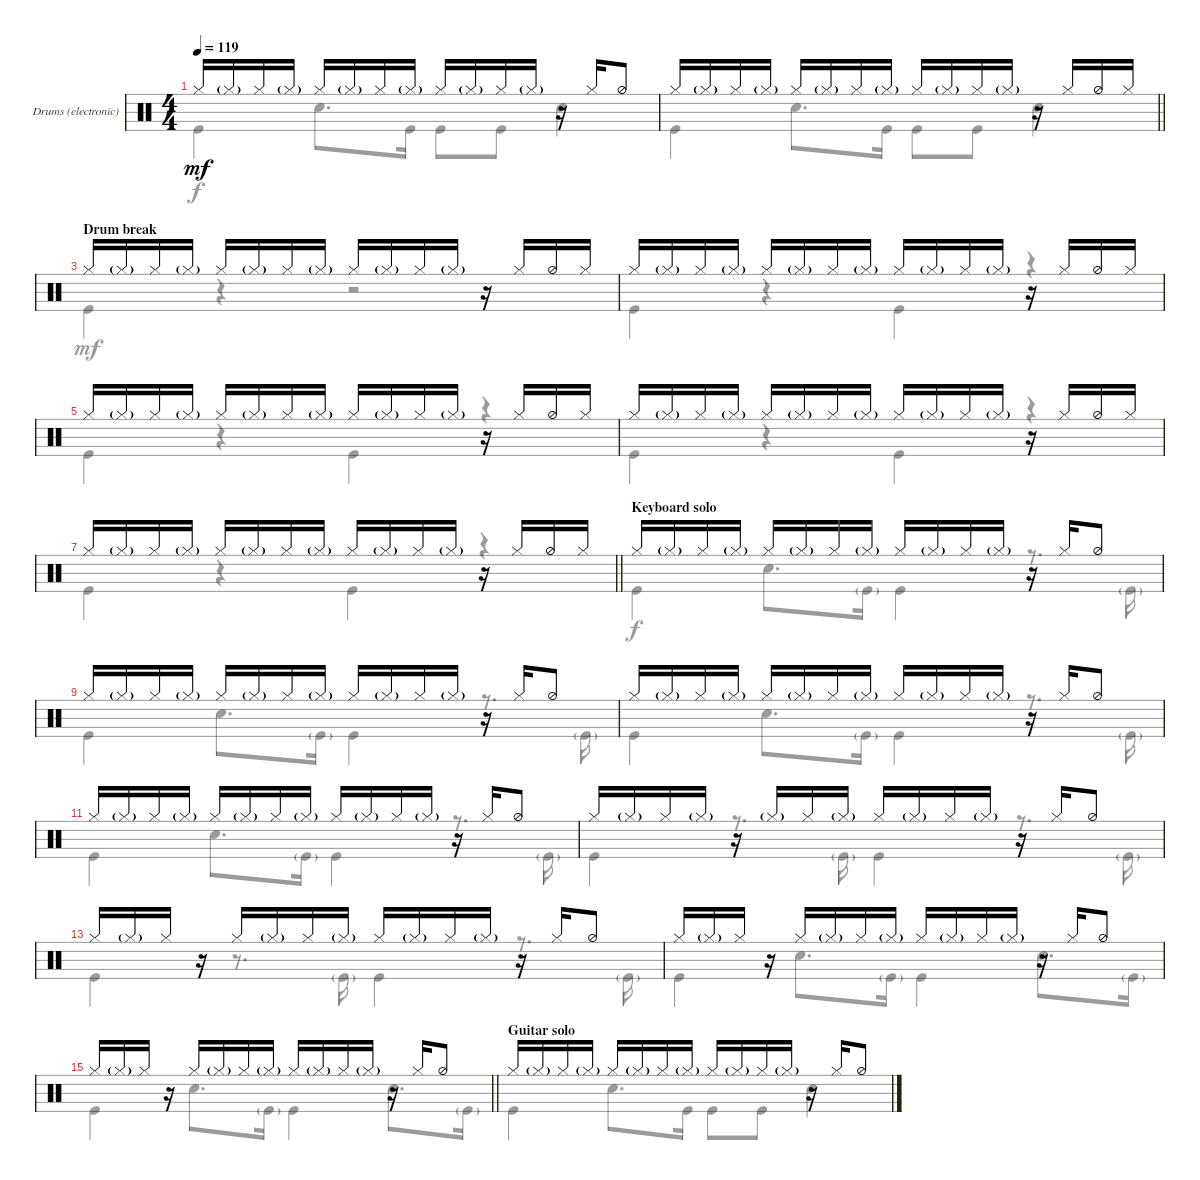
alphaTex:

\defaultSystemsLayout 4
\bracketExtendMode groupsimilarinstruments
\useSystemSignSeparator
\multiBarRest
\multiTrackTrackNamePolicy allsystems
\firstSystemTrackNameMode fullname
\firstSystemTrackNameOrientation horizontal
\otherSystemsTrackNameOrientation horizontal
\defaultBarNumberDisplay FirstOfSystem
\track ("Drums (electronic)" "Dr.") {multiBarRest instrument percussion}
\staff {score}
\articulation defaults
\voice
\ts (4 4)
\tempo 119
\clef neutral
\ks aminor "Hi-Hat (closed)".16{dy mf} "Hi-Hat (closed)"{g}.16 "Hi-Hat (closed)".16 "Hi-Hat (closed)"{g}.16 "Hi-Hat (closed)".16 "Hi-Hat (closed)"{g}.16 "Hi-Hat (closed)".16 "Hi-Hat (closed)"{g}.16 "Hi-Hat (closed)".16 "Hi-Hat (closed)"{g}.16 "Hi-Hat (closed)".16 "Hi-Hat (closed)"{g}.16
r.16 "Hi-Hat (closed)".16 "Hi-Hat (half)".8 |
\barLineRight lightlight "Hi-Hat (closed)".16 "Hi-Hat (closed)"{g}.16 "Hi-Hat (closed)".16 "Hi-Hat (closed)"{g}.16 "Hi-Hat (closed)".16 "Hi-Hat (closed)"{g}.16 "Hi-Hat (closed)".16 "Hi-Hat (closed)"{g}.16 "Hi-Hat (closed)".16 "Hi-Hat (closed)"{g}.16 "Hi-Hat (closed)".16 "Hi-Hat (closed)"{g}.16
r.16 "Hi-Hat (closed)".16 "Hi-Hat (half)".16 "Hi-Hat (closed)".16 |
\section ("" "Drum break")
"Hi-Hat (closed)".16 "Hi-Hat (closed)"{g}.16 "Hi-Hat (closed)".16 "Hi-Hat (closed)"{g}.16 "Hi-Hat (closed)".16 "Hi-Hat (closed)"{g}.16 "Hi-Hat (closed)".16 "Hi-Hat (closed)"{g}.16 "Hi-Hat (closed)".16 "Hi-Hat (closed)"{g}.16 "Hi-Hat (closed)".16 "Hi-Hat (closed)"{g}.16 r.16 "Hi-Hat (closed)".16 "Hi-Hat (half)".16 "Hi-Hat (closed)".16 |
"Hi-Hat (closed)".16 "Hi-Hat (closed)"{g}.16 "Hi-Hat (closed)".16 "Hi-Hat (closed)"{g}.16 "Hi-Hat (closed)".16 "Hi-Hat (closed)"{g}.16 "Hi-Hat (closed)".16 "Hi-Hat (closed)"{g}.16 "Hi-Hat (closed)".16 "Hi-Hat (closed)"{g}.16 "Hi-Hat (closed)".16 "Hi-Hat (closed)"{g}.16 r.16 "Hi-Hat (closed)".16 "Hi-Hat (half)".16 "Hi-Hat (closed)".16 |
"Hi-Hat (closed)".16 "Hi-Hat (closed)"{g}.16 "Hi-Hat (closed)".16 "Hi-Hat (closed)"{g}.16 "Hi-Hat (closed)".16 "Hi-Hat (closed)"{g}.16 "Hi-Hat (closed)".16 "Hi-Hat (closed)"{g}.16 "Hi-Hat (closed)".16 "Hi-Hat (closed)"{g}.16 "Hi-Hat (closed)".16 "Hi-Hat (closed)"{g}.16 r.16 "Hi-Hat (closed)".16 "Hi-Hat (half)".16 "Hi-Hat (closed)".16 |
"Hi-Hat (closed)".16 "Hi-Hat (closed)"{g}.16 "Hi-Hat (closed)".16 "Hi-Hat (closed)"{g}.16 "Hi-Hat (closed)".16 "Hi-Hat (closed)"{g}.16 "Hi-Hat (closed)".16 "Hi-Hat (closed)"{g}.16 "Hi-Hat (closed)".16 "Hi-Hat (closed)"{g}.16 "Hi-Hat (closed)".16 "Hi-Hat (closed)"{g}.16 r.16 "Hi-Hat (closed)".16 "Hi-Hat (half)".16 "Hi-Hat (closed)".16 |
\barLineRight lightlight "Hi-Hat (closed)".16 "Hi-Hat (closed)"{g}.16 "Hi-Hat (closed)".16 "Hi-Hat (closed)"{g}.16 "Hi-Hat (closed)".16 "Hi-Hat (closed)"{g}.16 "Hi-Hat (closed)".16 "Hi-Hat (closed)"{g}.16 "Hi-Hat (closed)".16 "Hi-Hat (closed)"{g}.16 "Hi-Hat (closed)".16 "Hi-Hat (closed)"{g}.16
r.16 "Hi-Hat (closed)".16 "Hi-Hat (half)".16 "Hi-Hat (closed)".16 |
\section ("" "Keyboard solo")
"Hi-Hat (closed)".16 "Hi-Hat (closed)"{g}.16 "Hi-Hat (closed)".16 "Hi-Hat (closed)"{g}.16 "Hi-Hat (closed)".16 "Hi-Hat (closed)"{g}.16 "Hi-Hat (closed)".16 "Hi-Hat (closed)"{g}.16 "Hi-Hat (closed)".16 "Hi-Hat (closed)"{g}.16 "Hi-Hat (closed)".16 "Hi-Hat (closed)"{g}.16 r.16 "Hi-Hat (closed)".16 "Hi-Hat (half)".8 |
"Hi-Hat (closed)".16 "Hi-Hat (closed)"{g}.16 "Hi-Hat (closed)".16 "Hi-Hat (closed)"{g}.16 "Hi-Hat (closed)".16 "Hi-Hat (closed)"{g}.16 "Hi-Hat (closed)".16 "Hi-Hat (closed)"{g}.16 "Hi-Hat (closed)".16 "Hi-Hat (closed)"{g}.16 "Hi-Hat (closed)".16 "Hi-Hat (closed)"{g}.16 r.16 "Hi-Hat (closed)".16 "Hi-Hat (half)".8 |
"Hi-Hat (closed)".16 "Hi-Hat (closed)"{g}.16 "Hi-Hat (closed)".16 "Hi-Hat (closed)"{g}.16 "Hi-Hat (closed)".16 "Hi-Hat (closed)"{g}.16 "Hi-Hat (closed)".16 "Hi-Hat (closed)"{g}.16 "Hi-Hat (closed)".16 "Hi-Hat (closed)"{g}.16 "Hi-Hat (closed)".16 "Hi-Hat (closed)"{g}.16 r.16 "Hi-Hat (closed)".16 "Hi-Hat (half)".8 |
"Hi-Hat (closed)".16 "Hi-Hat (closed)"{g}.16 "Hi-Hat (closed)".16 "Hi-Hat (closed)"{g}.16 "Hi-Hat (closed)".16 "Hi-Hat (closed)"{g}.16 "Hi-Hat (closed)".16 "Hi-Hat (closed)"{g}.16 "Hi-Hat (closed)".16 "Hi-Hat (closed)"{g}.16 "Hi-Hat (closed)".16 "Hi-Hat (closed)"{g}.16 r.16 "Hi-Hat (closed)".16 "Hi-Hat (half)".8 |
"Hi-Hat (closed)".16 "Hi-Hat (closed)"{g}.16 "Hi-Hat (closed)".16 "Hi-Hat (closed)"{g}.16 r.16 "Hi-Hat (closed)"{g}.16 "Hi-Hat (closed)".16 "Hi-Hat (closed)"{g}.16 "Hi-Hat (closed)".16 "Hi-Hat (closed)"{g}.16 "Hi-Hat (closed)".16 "Hi-Hat (closed)"{g}.16 r.16 "Hi-Hat (closed)".16 "Hi-Hat (half)".8 |
"Hi-Hat (closed)".16 "Hi-Hat (closed)"{g}.16 "Hi-Hat (closed)".16 r.16 "Hi-Hat (closed)".16 "Hi-Hat (closed)"{g}.16 "Hi-Hat (closed)".16 "Hi-Hat (closed)"{g}.16 "Hi-Hat (closed)".16 "Hi-Hat (closed)"{g}.16 "Hi-Hat (closed)".16 "Hi-Hat (closed)"{g}.16 r.16 "Hi-Hat (closed)".16 "Hi-Hat (half)".8 |
"Hi-Hat (closed)".16 "Hi-Hat (closed)"{g}.16 "Hi-Hat (closed)".16 r.16 "Hi-Hat (closed)".16 "Hi-Hat (closed)"{g}.16 "Hi-Hat (closed)".16 "Hi-Hat (closed)"{g}.16 "Hi-Hat (closed)".16 "Hi-Hat (closed)"{g}.16 "Hi-Hat (closed)".16 "Hi-Hat (closed)"{g}.16 r.16 "Hi-Hat (closed)".16 "Hi-Hat (half)".8 |
\barLineRight lightlight "Hi-Hat (closed)".16 "Hi-Hat (closed)"{g}.16 "Hi-Hat (closed)".16
r.16 "Hi-Hat (closed)".16 "Hi-Hat (closed)"{g}.16 "Hi-Hat (closed)".16 "Hi-Hat (closed)"{g}.16 "Hi-Hat (closed)".16 "Hi-Hat (closed)"{g}.16 "Hi-Hat (closed)".16 "Hi-Hat (closed)"{g}.16 r.16 "Hi-Hat (closed)".16 "Hi-Hat (half)".8 |
\section ("" "Guitar solo")
"Hi-Hat (closed)".16 "Hi-Hat (closed)"{g}.16 "Hi-Hat (closed)".16 "Hi-Hat (closed)"{g}.16 "Hi-Hat (closed)".16 "Hi-Hat (closed)"{g}.16 "Hi-Hat (closed)".16 "Hi-Hat (closed)"{g}.16 "Hi-Hat (closed)".16 "Hi-Hat (closed)"{g}.16 "Hi-Hat (closed)".16 "Hi-Hat (closed)"{g}.16 r.16 "Hi-Hat (closed)".16 "Hi-Hat (half)".8
\voice
\clef neutral
\ottava regular
\simile none
\ks aminor "Kick (hit)".4{dy f} "Snare (hit) 2".8{d} "Kick (hit)".16 "Kick (hit)".8 "Kick (hit)".8 "Snare (hit) 2".4
|
\barLineRight lightlight "Kick (hit)".4 "Snare (hit) 2".8{d} "Kick (hit)".16 "Kick (hit)".8 "Kick (hit)".8 "Snare (hit) 2".4
|
"Kick (hit)".4{dy mf} r.4 r.2 |
"Kick (hit)".4 r.4 "Kick (hit)".4 r.4 |
"Kick (hit)".4 r.4 "Kick (hit)".4 r.4 |
"Kick (hit)".4 r.4 "Kick (hit)".4 r.4 |
\barLineRight lightlight "Kick (hit)".4
r.4 "Kick (hit)".4 r.4 |
"Kick (hit)".4{dy f} "Snare (hit) 2".8{d} "Kick (hit)"{g}.16 "Kick (hit)".4 r.8{d} "Kick (hit)"{g}.16 |
"Kick (hit)".4 "Snare (hit) 2".8{d} "Kick (hit)"{g}.16 "Kick (hit)".4 r.8{d} "Kick (hit)"{g}.16 |
"Kick (hit)".4 "Snare (hit) 2".8{d} "Kick (hit)"{g}.16 "Kick (hit)".4 r.8{d} "Kick (hit)"{g}.16 |
"Kick (hit)".4 "Snare (hit) 2".8{d} "Kick (hit)"{g}.16 "Kick (hit)".4 r.8{d} "Kick (hit)"{g}.16 |
"Kick (hit)".4 r.8{d} "Kick (hit)"{g}.16 "Kick (hit)".4 r.8{d} "Kick (hit)"{g}.16 |
"Kick (hit)".4 r.8{d} "Kick (hit)"{g}.16 "Kick (hit)".4 r.8{d} "Kick (hit)"{g}.16 |
"Kick (hit)".4 "Snare (hit) 2".8{d} "Kick (hit)"{g}.16 "Kick (hit)".4 "Snare (hit) 2".8{d} "Kick (hit)"{g}.16 |
\barLineRight lightlight "Kick (hit)".4 "Snare (hit) 2".8{d} "Kick (hit)"{g}.16 "Kick (hit)".4 "Snare (hit) 2".8{d} "Kick (hit)"{g}.16
|
"Kick (hit)".4 "Snare (hit) 2".8{d} "Kick (hit)".16 "Kick (hit)".8 "Kick (hit)".8 "Snare (hit) 2".4
